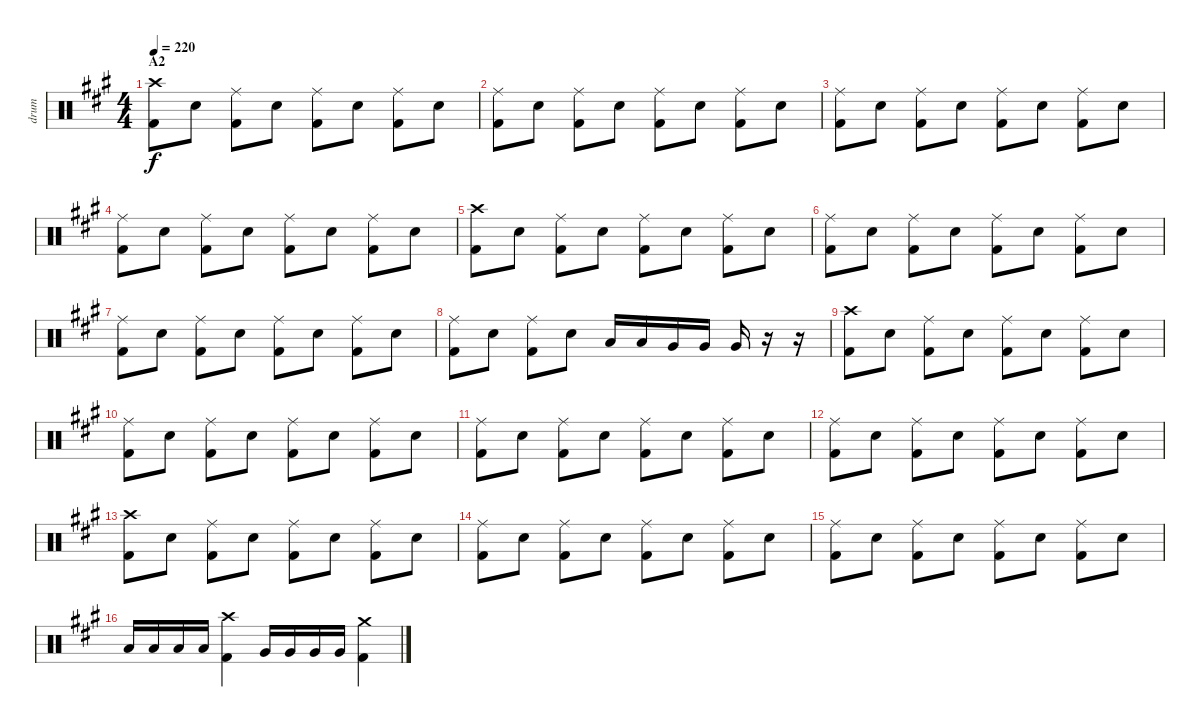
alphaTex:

\track ("drum" "drum") {instrument percussion}
\staff {score}
\articulation defaults
\ts (4 4)
\section ("" "A2")
\tempo 220
\clef neutral
\ks a
("Crash high (hit)" "Kick (hit) 2").8{dy f} "Electric Snare (hit)".8 ("Ride (middle)" "Kick (hit) 2").8 "Electric Snare (hit)".8 ("Ride (middle)" "Kick (hit) 2").8 "Electric Snare (hit)".8 ("Ride (middle)" "Kick (hit) 2").8 "Electric Snare (hit)".8 |
("Ride (middle)" "Kick (hit) 2").8 "Electric Snare (hit)".8 ("Ride (middle)" "Kick (hit) 2").8 "Electric Snare (hit)".8 ("Ride (middle)" "Kick (hit) 2").8 "Electric Snare (hit)".8 ("Ride (middle)" "Kick (hit) 2").8 "Electric Snare (hit)".8 |
("Ride (middle)" "Kick (hit) 2").8 "Electric Snare (hit)".8 ("Ride (middle)" "Kick (hit) 2").8 "Electric Snare (hit)".8 ("Ride (middle)" "Kick (hit) 2").8 "Electric Snare (hit)".8 ("Ride (middle)" "Kick (hit) 2").8 "Electric Snare (hit)".8 |
("Ride (middle)" "Kick (hit) 2").8 "Electric Snare (hit)".8 ("Ride (middle)" "Kick (hit) 2").8 "Electric Snare (hit)".8 ("Ride (middle)" "Kick (hit) 2").8 "Electric Snare (hit)".8 ("Ride (middle)" "Kick (hit) 2").8 "Electric Snare (hit)".8 |
("Crash high (hit)" "Kick (hit) 2").8 "Electric Snare (hit)".8 ("Ride (middle)" "Kick (hit) 2").8 "Electric Snare (hit)".8 ("Ride (middle)" "Kick (hit) 2").8 "Electric Snare (hit)".8 ("Ride (middle)" "Kick (hit) 2").8 "Electric Snare (hit)".8 |
("Ride (middle)" "Kick (hit) 2").8 "Electric Snare (hit)".8 ("Ride (middle)" "Kick (hit) 2").8 "Electric Snare (hit)".8 ("Ride (middle)" "Kick (hit) 2").8 "Electric Snare (hit)".8 ("Ride (middle)" "Kick (hit) 2").8 "Electric Snare (hit)".8 |
("Ride (middle)" "Kick (hit) 2").8 "Electric Snare (hit)".8 ("Ride (middle)" "Kick (hit) 2").8 "Electric Snare (hit)".8 ("Ride (middle)" "Kick (hit) 2").8 "Electric Snare (hit)".8 ("Ride (middle)" "Kick (hit) 2").8 "Electric Snare (hit)".8 |
("Ride (middle)" "Kick (hit) 2").8 "Electric Snare (hit)".8 ("Ride (middle)" "Kick (hit) 2").8 "Electric Snare (hit)".8 "Low Tom (hit)".16 "Low Tom (hit)".16 "Very Low Tom (hit)".16 "Very Low Tom (hit)".16 "Very Low Tom (hit)".16 r.16 r.16 |
("Crash high (hit)" "Kick (hit) 2").8 "Electric Snare (hit)".8 ("Ride (middle)" "Kick (hit) 2").8 "Electric Snare (hit)".8 ("Ride (middle)" "Kick (hit) 2").8 "Electric Snare (hit)".8 ("Ride (middle)" "Kick (hit) 2").8 "Electric Snare (hit)".8 |
("Ride (middle)" "Kick (hit) 2").8 "Electric Snare (hit)".8 ("Ride (middle)" "Kick (hit) 2").8 "Electric Snare (hit)".8 ("Ride (middle)" "Kick (hit) 2").8 "Electric Snare (hit)".8 ("Ride (middle)" "Kick (hit) 2").8 "Electric Snare (hit)".8 |
("Ride (middle)" "Kick (hit) 2").8 "Electric Snare (hit)".8 ("Ride (middle)" "Kick (hit) 2").8 "Electric Snare (hit)".8 ("Ride (middle)" "Kick (hit) 2").8 "Electric Snare (hit)".8 ("Ride (middle)" "Kick (hit) 2").8 "Electric Snare (hit)".8 |
("Ride (middle)" "Kick (hit) 2").8 "Electric Snare (hit)".8 ("Ride (middle)" "Kick (hit) 2").8 "Electric Snare (hit)".8 ("Ride (middle)" "Kick (hit) 2").8 "Electric Snare (hit)".8 ("Ride (middle)" "Kick (hit) 2").8 "Electric Snare (hit)".8 |
("Crash high (hit)" "Kick (hit) 2").8 "Electric Snare (hit)".8 ("Ride (middle)" "Kick (hit) 2").8 "Electric Snare (hit)".8 ("Ride (middle)" "Kick (hit) 2").8 "Electric Snare (hit)".8 ("Ride (middle)" "Kick (hit) 2").8 "Electric Snare (hit)".8 |
("Ride (middle)" "Kick (hit) 2").8 "Electric Snare (hit)".8 ("Ride (middle)" "Kick (hit) 2").8 "Electric Snare (hit)".8 ("Ride (middle)" "Kick (hit) 2").8 "Electric Snare (hit)".8 ("Ride (middle)" "Kick (hit) 2").8 "Electric Snare (hit)".8 |
("Ride (middle)" "Kick (hit) 2").8 "Electric Snare (hit)".8 ("Ride (middle)" "Kick (hit) 2").8 "Electric Snare (hit)".8 ("Ride (middle)" "Kick (hit) 2").8 "Electric Snare (hit)".8 ("Ride (middle)" "Kick (hit) 2").8 "Electric Snare (hit)".8 |
"Low Tom (hit)".16 "Low Tom (hit)".16 "Low Tom (hit)".16 "Low Tom (hit)".16 ("Crash high (hit)" "Kick (hit) 2").4 "Very Low Tom (hit)".16 "Very Low Tom (hit)".16 "Very Low Tom (hit)".16 "Very Low Tom (hit)".16 ("Crash medium (hit)" "Kick (hit) 2").4
